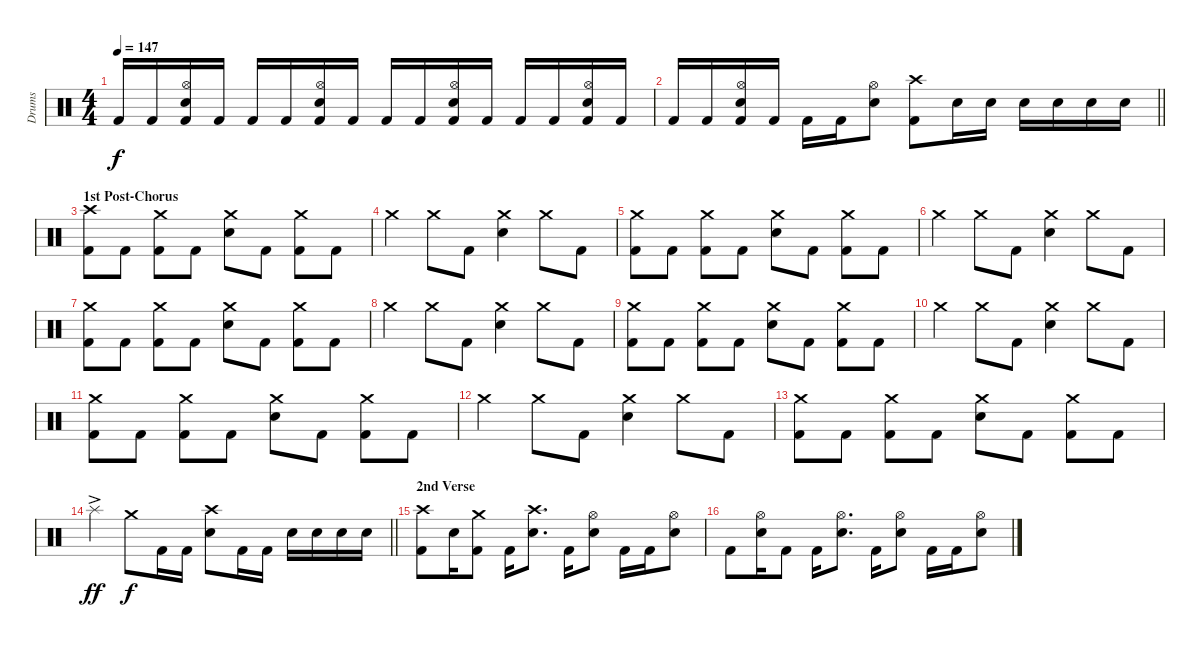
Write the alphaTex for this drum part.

\track ("Drums" "Drums") {instrument percussion}
\staff {score}
\articulation defaults
\ts (4 4)
\tempo 147
\clef neutral
\ks c "Kick (hit) 2".16{dy f} "Kick (hit) 2".16
("Hi-Hat (open)" "Snare (hit) 2" "Kick (hit) 2").16 "Kick (hit) 2".16 "Kick (hit) 2".16 "Kick (hit) 2".16 ("Hi-Hat (open)" "Snare (hit) 2" "Kick (hit) 2").16 "Kick (hit) 2".16 "Kick (hit) 2".16 "Kick (hit) 2".16 ("Hi-Hat (open)" "Snare (hit) 2" "Kick (hit) 2").16 "Kick (hit) 2".16 "Kick (hit) 2".16 "Kick (hit) 2".16 ("Hi-Hat (open)" "Snare (hit) 2" "Kick (hit) 2").16 "Kick (hit) 2".16 |
\barLineRight lightlight "Kick (hit) 2".16 "Kick (hit) 2".16
("Hi-Hat (open)" "Snare (hit) 2" "Kick (hit) 2").16 "Kick (hit) 2".16 "Kick (hit) 2".16 "Kick (hit) 2".16 ("Hi-Hat (open)" "Snare (hit) 2").8 ("Crash high (hit)" "Kick (hit) 2").8 "Snare (hit) 2".16 "Snare (hit) 2".16 "Snare (hit) 2".16 "Snare (hit) 2".16 "Snare (hit) 2".16 "Snare (hit) 2".16 |
\section ("" "1st Post-Chorus")
("Crash high (hit)" "Kick (hit) 2").8 "Kick (hit) 2".8 ("Crash medium (hit)" "Kick (hit) 2").8 "Kick (hit) 2".8 ("Crash medium (hit)" "Snare (hit) 2").8 "Kick (hit) 2".8 ("Crash medium (hit)" "Kick (hit) 2").8 "Kick (hit) 2".8 |
"Crash medium (hit)".4 "Crash medium (hit)".8 "Kick (hit) 2".8 ("Crash medium (hit)" "Snare (hit) 2").4 "Crash medium (hit)".8 "Kick (hit) 2".8 |
("Crash medium (hit)" "Kick (hit) 2").8 "Kick (hit) 2".8 ("Crash medium (hit)" "Kick (hit) 2").8 "Kick (hit) 2".8 ("Crash medium (hit)" "Snare (hit) 2").8 "Kick (hit) 2".8 ("Crash medium (hit)" "Kick (hit) 2").8 "Kick (hit) 2".8 |
"Crash medium (hit)".4 "Crash medium (hit)".8 "Kick (hit) 2".8 ("Crash medium (hit)" "Snare (hit) 2").4 "Crash medium (hit)".8 "Kick (hit) 2".8 |
("Crash medium (hit)" "Kick (hit) 2").8 "Kick (hit) 2".8 ("Crash medium (hit)" "Kick (hit) 2").8 "Kick (hit) 2".8 ("Crash medium (hit)" "Snare (hit) 2").8 "Kick (hit) 2".8 ("Crash medium (hit)" "Kick (hit) 2").8 "Kick (hit) 2".8 |
"Crash medium (hit)".4 "Crash medium (hit)".8 "Kick (hit) 2".8 ("Crash medium (hit)" "Snare (hit) 2").4 "Crash medium (hit)".8 "Kick (hit) 2".8 |
("Crash medium (hit)" "Kick (hit) 2").8 "Kick (hit) 2".8 ("Crash medium (hit)" "Kick (hit) 2").8 "Kick (hit) 2".8 ("Crash medium (hit)" "Snare (hit) 2").8 "Kick (hit) 2".8 ("Crash medium (hit)" "Kick (hit) 2").8 "Kick (hit) 2".8 |
"Crash medium (hit)".4 "Crash medium (hit)".8 "Kick (hit) 2".8 ("Crash medium (hit)" "Snare (hit) 2").4 "Crash medium (hit)".8 "Kick (hit) 2".8 |
("Crash medium (hit)" "Kick (hit) 2").8 "Kick (hit) 2".8 ("Crash medium (hit)" "Kick (hit) 2").8 "Kick (hit) 2".8 ("Crash medium (hit)" "Snare (hit) 2").8 "Kick (hit) 2".8 ("Crash medium (hit)" "Kick (hit) 2").8 "Kick (hit) 2".8 |
"Crash medium (hit)".4 "Crash medium (hit)".8 "Kick (hit) 2".8 ("Crash medium (hit)" "Snare (hit) 2").4 "Crash medium (hit)".8 "Kick (hit) 2".8 |
("Crash medium (hit)" "Kick (hit) 2").8 "Kick (hit) 2".8 ("Crash medium (hit)" "Kick (hit) 2").8 "Kick (hit) 2".8 ("Crash medium (hit)" "Snare (hit) 2").8 "Kick (hit) 2".8 ("Crash medium (hit)" "Kick (hit) 2").8 "Kick (hit) 2".8 |
\barLineRight lightlight "Splash (hit)"{ac}.4{dy ff} "Crash medium (hit)".8{dy f} "Kick (hit) 2".16 "Kick (hit) 2".16
("Crash high (hit)" "Snare (hit) 2").8 "Kick (hit) 2".16 "Kick (hit) 2".16 "Snare (hit) 2".16 "Snare (hit) 2".16 "Snare (hit) 2".16 "Snare (hit) 2".16 |
\section ("" "2nd Verse")
("Crash high (hit)" "Kick (hit) 2").8 "Snare (hit) 2".16 ("Crash medium (hit)" "Kick (hit) 2").8 "Kick (hit) 2".16 ("Crash high (hit)" "Snare (hit) 2").8{d} "Kick (hit) 2".16 ("Hi-Hat (open)" "Snare (hit) 2").8 "Kick (hit) 2".16 "Kick (hit) 2".16 ("Hi-Hat (open)" "Snare (hit) 2").8 |
"Kick (hit) 2".8 ("Hi-Hat (open)" "Snare (hit) 2").16 "Kick (hit) 2".8 "Kick (hit) 2".16 ("Hi-Hat (open)" "Snare (hit) 2").8{d} "Kick (hit) 2".16 ("Hi-Hat (open)" "Snare (hit) 2").8 "Kick (hit) 2".16 "Kick (hit) 2".16 ("Hi-Hat (open)" "Snare (hit) 2").8
